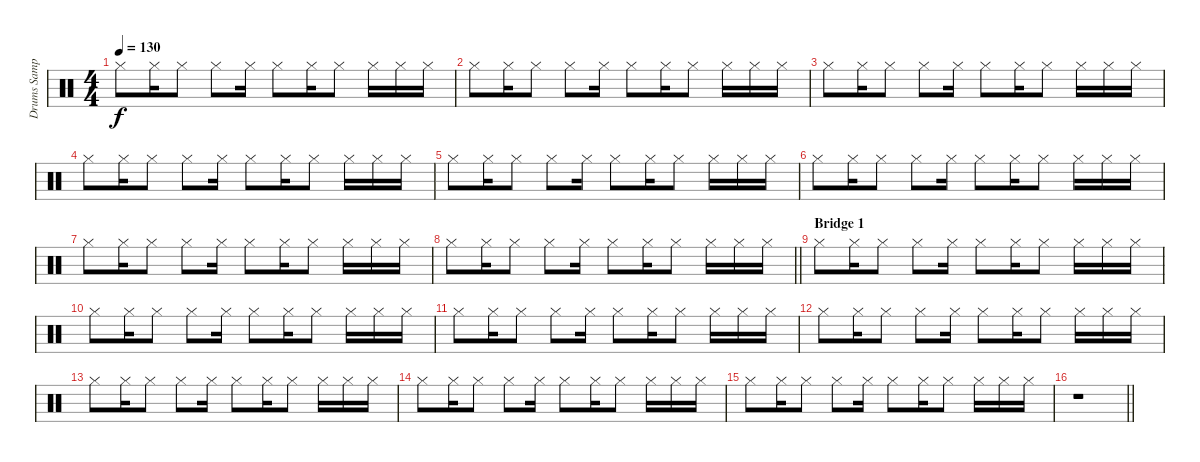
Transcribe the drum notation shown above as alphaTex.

\track ("Drums Sample" "Drums Samp") {instrument percussion}
\staff {score}
\articulation defaults
\ts (4 4)
\tempo 130
\clef neutral
\ks c "Hi-Hat (closed)".8{dy f} "Hi-Hat (closed)".16 "Hi-Hat (closed)".8 "Hi-Hat (closed)".8 "Hi-Hat (closed)".16 "Hi-Hat (closed)".8 "Hi-Hat (closed)".16 "Hi-Hat (closed)".8 "Hi-Hat (closed)".16 "Hi-Hat (closed)".16 "Hi-Hat (closed)".16
|
"Hi-Hat (closed)".8 "Hi-Hat (closed)".16 "Hi-Hat (closed)".8 "Hi-Hat (closed)".8 "Hi-Hat (closed)".16 "Hi-Hat (closed)".8 "Hi-Hat (closed)".16 "Hi-Hat (closed)".8 "Hi-Hat (closed)".16 "Hi-Hat (closed)".16 "Hi-Hat (closed)".16 |
"Hi-Hat (closed)".8 "Hi-Hat (closed)".16 "Hi-Hat (closed)".8 "Hi-Hat (closed)".8 "Hi-Hat (closed)".16 "Hi-Hat (closed)".8 "Hi-Hat (closed)".16 "Hi-Hat (closed)".8 "Hi-Hat (closed)".16 "Hi-Hat (closed)".16 "Hi-Hat (closed)".16 |
"Hi-Hat (closed)".8 "Hi-Hat (closed)".16 "Hi-Hat (closed)".8 "Hi-Hat (closed)".8 "Hi-Hat (closed)".16 "Hi-Hat (closed)".8 "Hi-Hat (closed)".16 "Hi-Hat (closed)".8 "Hi-Hat (closed)".16 "Hi-Hat (closed)".16 "Hi-Hat (closed)".16 |
"Hi-Hat (closed)".8 "Hi-Hat (closed)".16 "Hi-Hat (closed)".8 "Hi-Hat (closed)".8 "Hi-Hat (closed)".16 "Hi-Hat (closed)".8 "Hi-Hat (closed)".16 "Hi-Hat (closed)".8 "Hi-Hat (closed)".16 "Hi-Hat (closed)".16 "Hi-Hat (closed)".16 |
"Hi-Hat (closed)".8 "Hi-Hat (closed)".16 "Hi-Hat (closed)".8 "Hi-Hat (closed)".8 "Hi-Hat (closed)".16 "Hi-Hat (closed)".8 "Hi-Hat (closed)".16 "Hi-Hat (closed)".8 "Hi-Hat (closed)".16 "Hi-Hat (closed)".16 "Hi-Hat (closed)".16 |
"Hi-Hat (closed)".8 "Hi-Hat (closed)".16 "Hi-Hat (closed)".8 "Hi-Hat (closed)".8 "Hi-Hat (closed)".16 "Hi-Hat (closed)".8 "Hi-Hat (closed)".16 "Hi-Hat (closed)".8 "Hi-Hat (closed)".16 "Hi-Hat (closed)".16 "Hi-Hat (closed)".16 |
\barLineRight lightlight "Hi-Hat (closed)".8 "Hi-Hat (closed)".16 "Hi-Hat (closed)".8 "Hi-Hat (closed)".8 "Hi-Hat (closed)".16 "Hi-Hat (closed)".8 "Hi-Hat (closed)".16 "Hi-Hat (closed)".8 "Hi-Hat (closed)".16 "Hi-Hat (closed)".16 "Hi-Hat (closed)".16
|
\section ("" "Bridge 1")
"Hi-Hat (closed)".8 "Hi-Hat (closed)".16 "Hi-Hat (closed)".8 "Hi-Hat (closed)".8 "Hi-Hat (closed)".16 "Hi-Hat (closed)".8 "Hi-Hat (closed)".16 "Hi-Hat (closed)".8 "Hi-Hat (closed)".16 "Hi-Hat (closed)".16 "Hi-Hat (closed)".16 |
"Hi-Hat (closed)".8 "Hi-Hat (closed)".16 "Hi-Hat (closed)".8 "Hi-Hat (closed)".8 "Hi-Hat (closed)".16 "Hi-Hat (closed)".8 "Hi-Hat (closed)".16 "Hi-Hat (closed)".8 "Hi-Hat (closed)".16 "Hi-Hat (closed)".16 "Hi-Hat (closed)".16 |
"Hi-Hat (closed)".8 "Hi-Hat (closed)".16 "Hi-Hat (closed)".8 "Hi-Hat (closed)".8 "Hi-Hat (closed)".16 "Hi-Hat (closed)".8 "Hi-Hat (closed)".16 "Hi-Hat (closed)".8 "Hi-Hat (closed)".16 "Hi-Hat (closed)".16 "Hi-Hat (closed)".16 |
"Hi-Hat (closed)".8 "Hi-Hat (closed)".16 "Hi-Hat (closed)".8 "Hi-Hat (closed)".8 "Hi-Hat (closed)".16 "Hi-Hat (closed)".8 "Hi-Hat (closed)".16 "Hi-Hat (closed)".8 "Hi-Hat (closed)".16 "Hi-Hat (closed)".16 "Hi-Hat (closed)".16 |
"Hi-Hat (closed)".8 "Hi-Hat (closed)".16 "Hi-Hat (closed)".8 "Hi-Hat (closed)".8 "Hi-Hat (closed)".16 "Hi-Hat (closed)".8 "Hi-Hat (closed)".16 "Hi-Hat (closed)".8 "Hi-Hat (closed)".16 "Hi-Hat (closed)".16 "Hi-Hat (closed)".16 |
"Hi-Hat (closed)".8 "Hi-Hat (closed)".16 "Hi-Hat (closed)".8 "Hi-Hat (closed)".8 "Hi-Hat (closed)".16 "Hi-Hat (closed)".8 "Hi-Hat (closed)".16 "Hi-Hat (closed)".8 "Hi-Hat (closed)".16 "Hi-Hat (closed)".16 "Hi-Hat (closed)".16 |
"Hi-Hat (closed)".8 "Hi-Hat (closed)".16 "Hi-Hat (closed)".8 "Hi-Hat (closed)".8 "Hi-Hat (closed)".16 "Hi-Hat (closed)".8 "Hi-Hat (closed)".16 "Hi-Hat (closed)".8 "Hi-Hat (closed)".16 "Hi-Hat (closed)".16 "Hi-Hat (closed)".16 |
\barLineRight lightlight
r.1
